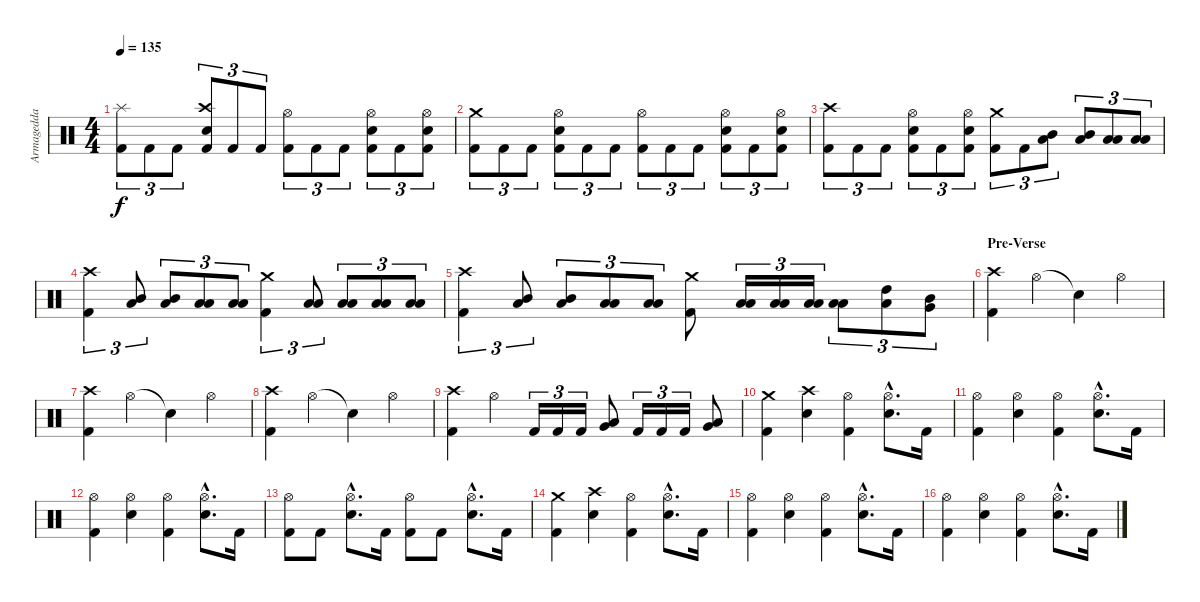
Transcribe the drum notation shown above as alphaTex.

\track ("Armagedda" "Armagedda") {instrument percussion}
\staff {score}
\articulation defaults
\ts (4 4)
\tempo 135
\clef neutral
\ks c
("Splash (hit)" "Kick (hit) 2").8{tu (3 2) dy f} "Kick (hit) 2".8{tu (3 2)} "Kick (hit) 2".8{tu (3 2)} ("Crash high (hit)" "Electric Snare (hit)" "Kick (hit) 2").8{tu (3 2)} "Kick (hit) 2".8{tu (3 2)} "Kick (hit) 2".8{tu (3 2)} ("Hi-Hat (open)" "Kick (hit) 2").8{tu (3 2)} "Kick (hit) 2".8{tu (3 2)} "Kick (hit) 2".8{tu (3 2)} ("Hi-Hat (open)" "Electric Snare (hit)" "Kick (hit) 2").8{tu (3 2)} "Kick (hit) 2".8{tu (3 2)} ("Hi-Hat (open)" "Electric Snare (hit)" "Kick (hit) 2").8{tu (3 2)} |
("Crash medium (hit)" "Kick (hit) 2").8{tu (3 2)} "Kick (hit) 2".8{tu (3 2)} "Kick (hit) 2".8{tu (3 2)} ("Hi-Hat (open)" "Electric Snare (hit)" "Kick (hit) 2").8{tu (3 2)} "Kick (hit) 2".8{tu (3 2)} "Kick (hit) 2".8{tu (3 2)} ("Hi-Hat (open)" "Kick (hit) 2").8{tu (3 2)} "Kick (hit) 2".8{tu (3 2)} "Kick (hit) 2".8{tu (3 2)} ("Hi-Hat (open)" "Electric Snare (hit)" "Kick (hit) 2").8{tu (3 2)} "Kick (hit) 2".8{tu (3 2)} ("Hi-Hat (open)" "Electric Snare (hit)" "Kick (hit) 2").8{tu (3 2)} |
("Crash high (hit)" "Kick (hit) 2").8{tu (3 2)} "Kick (hit) 2".8{tu (3 2)} "Kick (hit) 2".8{tu (3 2)} ("Hi-Hat (open)" "Electric Snare (hit)" "Kick (hit) 2").8{tu (3 2)} "Kick (hit) 2".8{tu (3 2)} ("Hi-Hat (open)" "Electric Snare (hit)" "Kick (hit) 2").8{tu (3 2)} ("Crash medium (hit)" "Kick (hit) 2").8{tu (3 2)} "Kick (hit) 2".8{tu (3 2)} ("Low Floor Tom (hit)" "Mid Tom (hit)").8{tu (3 2)} ("Low Floor Tom (hit)" "Mid Tom (hit)").8{tu (3 2)} ("Low Floor Tom (hit)" "Low Tom (hit)").8{tu (3 2)} ("Low Floor Tom (hit)" "Low Tom (hit)").8{tu (3 2)} |
("Crash high (hit)" "Kick (hit) 2").4{tu (3 2)} ("Low Floor Tom (hit)" "Mid Tom (hit)").8{tu (3 2)} ("Low Floor Tom (hit)" "Mid Tom (hit)").8{tu (3 2)} ("Low Floor Tom (hit)" "Low Tom (hit)").8{tu (3 2)} ("Low Floor Tom (hit)" "Low Tom (hit)").8{tu (3 2)} ("Crash medium (hit)" "Kick (hit) 2").4{tu (3 2)} ("Low Floor Tom (hit)" "Low Tom (hit)").8{tu (3 2)} ("Low Floor Tom (hit)" "Low Tom (hit)").8{tu (3 2)} ("Low Floor Tom (hit)" "Low Tom (hit)").8{tu (3 2)} ("Low Floor Tom (hit)" "Low Tom (hit)").8{tu (3 2)} |
("Crash high (hit)" "Kick (hit) 2").4{tu (3 2)} ("Low Floor Tom (hit)" "Mid Tom (hit)").8{tu (3 2)} ("Low Floor Tom (hit)" "Mid Tom (hit)").8{tu (3 2)} ("Low Floor Tom (hit)" "Low Tom (hit)").8{tu (3 2)} ("Low Floor Tom (hit)" "Low Tom (hit)").8{tu (3 2)} ("Crash medium (hit)" "Kick (hit) 2").8 ("Low Floor Tom (hit)" "Low Tom (hit)").16{tu (3 2)} ("Low Floor Tom (hit)" "Low Tom (hit)").16{tu (3 2)} ("Low Floor Tom (hit)" "Low Tom (hit)").16{tu (3 2)} ("Low Tom (hit)" "Low Tom (hit)").8{tu (3 2)} ("Low Tom (hit)" "High Tom (hit)").8{tu (3 2)} ("Very Low Tom (hit)" "Mid Tom (hit)").8{tu (3 2)} |
\section ("" "Pre-Verse")
("Crash high (hit)" "Kick (hit) 2").4 "Hi-Hat (open)".4 "Snare (hit)"{t}.4 "Hi-Hat (open)".4 |
("Crash high (hit)" "Kick (hit) 2").4 "Hi-Hat (open)".4 "Snare (hit)"{t}.4 "Hi-Hat (open)".4 |
("Crash high (hit)" "Kick (hit) 2").4 "Hi-Hat (open)".4 "Snare (hit)"{t}.4 "Hi-Hat (open)".4 |
("Crash high (hit)" "Kick (hit) 2").4 "Hi-Hat (open)".4 "Kick (hit) 2".16{tu (3 2)} "Kick (hit) 2".16{tu (3 2)} "Kick (hit) 2".16{tu (3 2)} ("Low Tom (hit)" "Very Low Tom (hit)").8 "Kick (hit) 2".16{tu (3 2)} "Kick (hit) 2".16{tu (3 2)} "Kick (hit) 2".16{tu (3 2)} ("Very Low Tom (hit)" "Low Floor Tom (hit)").8 |
("Crash medium (hit)" "Kick (hit) 2").4 ("Crash high (hit)" "Electric Snare (hit)").4 ("Hi-Hat (open)" "Kick (hit) 2").4 ("Hi-Hat (open)"{hac} "Electric Snare (hit)"{hac}).8{d} "Kick (hit) 2".16 |
("Hi-Hat (open)" "Kick (hit) 2").4 ("Hi-Hat (open)" "Electric Snare (hit)").4 ("Hi-Hat (open)" "Kick (hit) 2").4 ("Hi-Hat (open)"{hac} "Electric Snare (hit)"{hac}).8{d} "Kick (hit) 2".16 |
("Hi-Hat (open)" "Kick (hit) 2").4 ("Hi-Hat (open)" "Electric Snare (hit)").4 ("Hi-Hat (open)" "Kick (hit) 2").4 ("Hi-Hat (open)"{hac} "Electric Snare (hit)"{hac}).8{d} "Kick (hit) 2".16 |
("Hi-Hat (open)" "Kick (hit) 2").8 "Kick (hit) 2".8 ("Hi-Hat (open)"{hac} "Electric Snare (hit)"{hac}).8{d} "Kick (hit) 2".16 ("Hi-Hat (open)" "Kick (hit) 2").8 "Kick (hit) 2".8 ("Hi-Hat (open)"{hac} "Electric Snare (hit)"{hac}).8{d} "Kick (hit) 2".16 |
("Crash medium (hit)" "Kick (hit) 2").4 ("Crash high (hit)" "Electric Snare (hit)").4 ("Hi-Hat (open)" "Kick (hit) 2").4 ("Hi-Hat (open)"{hac} "Electric Snare (hit)"{hac}).8{d} "Kick (hit) 2".16 |
("Hi-Hat (open)" "Kick (hit) 2").4 ("Hi-Hat (open)" "Electric Snare (hit)").4 ("Hi-Hat (open)" "Kick (hit) 2").4 ("Hi-Hat (open)"{hac} "Electric Snare (hit)"{hac}).8{d} "Kick (hit) 2".16 |
("Hi-Hat (open)" "Kick (hit) 2").4 ("Hi-Hat (open)" "Electric Snare (hit)").4 ("Hi-Hat (open)" "Kick (hit) 2").4 ("Hi-Hat (open)"{hac} "Electric Snare (hit)"{hac}).8{d} "Kick (hit) 2".16
